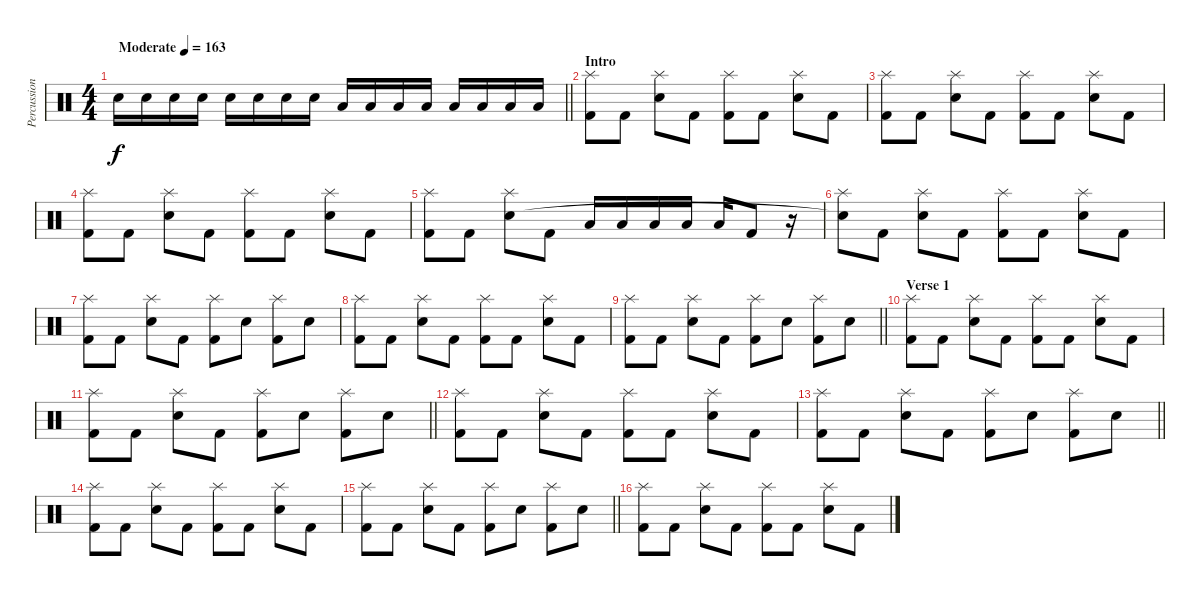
\track ("Percussion" "Percussion") {solo instrument percussion}
\staff {score}
\articulation defaults
\ts (4 4)
\tempo (163 "Moderate")
\clef neutral
\barLineRight lightlight
\ks c "Electric Snare (hit)".16{dy f} "Electric Snare (hit)".16 "Electric Snare (hit)".16 "Electric Snare (hit)".16 "Electric Snare (hit)".16 "Electric Snare (hit)".16 "Electric Snare (hit)".16 "Electric Snare (hit)".16 "Low Tom (hit)".16 "Low Tom (hit)".16 "Low Tom (hit)".16 "Low Tom (hit)".16 "Low Floor Tom (hit)".16 "Low Floor Tom (hit)".16 "Low Floor Tom (hit)".16 "Low Floor Tom (hit)".16
|
\section ("" "Intro")
("Splash (hit)" "Kick (hit) 2").8 "Kick (hit) 2".8 ("Splash (hit)" "Snare (hit) 2").8 "Kick (hit) 2".8 ("Splash (hit)" "Kick (hit) 2").8 "Kick (hit) 2".8 ("Splash (hit)" "Snare (hit) 2").8 "Kick (hit) 2".8 |
("Splash (hit)" "Kick (hit) 2").8 "Kick (hit) 2".8 ("Splash (hit)" "Snare (hit) 2").8 "Kick (hit) 2".8 ("Splash (hit)" "Kick (hit) 2").8 "Kick (hit) 2".8 ("Splash (hit)" "Snare (hit) 2").8 "Kick (hit) 2".8 |
("Splash (hit)" "Kick (hit) 2").8 "Kick (hit) 2".8 ("Splash (hit)" "Snare (hit) 2").8 "Kick (hit) 2".8 ("Splash (hit)" "Kick (hit) 2").8 "Kick (hit) 2".8 ("Splash (hit)" "Snare (hit) 2").8 "Kick (hit) 2".8 |
("Splash (hit)" "Kick (hit) 2").8 "Kick (hit) 2".8 ("Splash (hit)" "Snare (hit) 2").8 "Kick (hit) 2".8 "Low Tom (hit)".16 "Low Tom (hit)".16 "Low Floor Tom (hit)".16 "Low Tom (hit)".16 "Low Tom (hit)".16 "Kick (hit) 2".8 r.16 |
("Splash (hit)" "Snare (hit)"{t}).8 "Kick (hit) 2".8 ("Splash (hit)" "Snare (hit) 2").8 "Kick (hit) 2".8 ("Splash (hit)" "Kick (hit) 2").8 "Kick (hit) 2".8 ("Splash (hit)" "Snare (hit) 2").8 "Kick (hit) 2".8 |
("Splash (hit)" "Kick (hit) 2").8 "Kick (hit) 2".8 ("Splash (hit)" "Snare (hit) 2").8 "Kick (hit) 2".8 ("Splash (hit)" "Kick (hit) 2").8 "Snare (hit) 2".8 ("Splash (hit)" "Kick (hit) 2").8 "Snare (hit) 2".8 |
("Splash (hit)" "Kick (hit) 2").8 "Kick (hit) 2".8 ("Splash (hit)" "Snare (hit) 2").8 "Kick (hit) 2".8 ("Splash (hit)" "Kick (hit) 2").8 "Kick (hit) 2".8 ("Splash (hit)" "Snare (hit) 2").8 "Kick (hit) 2".8 |
\barLineRight lightlight
("Splash (hit)" "Kick (hit) 2").8 "Kick (hit) 2".8 ("Splash (hit)" "Snare (hit) 2").8 "Kick (hit) 2".8 ("Splash (hit)" "Kick (hit) 2").8 "Snare (hit) 2".8 ("Splash (hit)" "Kick (hit) 2").8 "Snare (hit) 2".8 |
\section ("" "Verse 1")
("Splash (hit)" "Kick (hit) 2").8 "Kick (hit) 2".8 ("Splash (hit)" "Snare (hit) 2").8 "Kick (hit) 2".8 ("Splash (hit)" "Kick (hit) 2").8 "Kick (hit) 2".8 ("Splash (hit)" "Snare (hit) 2").8 "Kick (hit) 2".8 |
\barLineRight lightlight
("Splash (hit)" "Kick (hit) 2").8 "Kick (hit) 2".8 ("Splash (hit)" "Snare (hit) 2").8 "Kick (hit) 2".8 ("Splash (hit)" "Kick (hit) 2").8 "Snare (hit) 2".8 ("Splash (hit)" "Kick (hit) 2").8 "Snare (hit) 2".8 |
("Splash (hit)" "Kick (hit) 2").8 "Kick (hit) 2".8 ("Splash (hit)" "Snare (hit) 2").8 "Kick (hit) 2".8 ("Splash (hit)" "Kick (hit) 2").8 "Kick (hit) 2".8 ("Splash (hit)" "Snare (hit) 2").8 "Kick (hit) 2".8 |
\barLineRight lightlight
("Splash (hit)" "Kick (hit) 2").8 "Kick (hit) 2".8 ("Splash (hit)" "Snare (hit) 2").8 "Kick (hit) 2".8 ("Splash (hit)" "Kick (hit) 2").8 "Snare (hit) 2".8 ("Splash (hit)" "Kick (hit) 2").8 "Snare (hit) 2".8 |
("Splash (hit)" "Kick (hit) 2").8 "Kick (hit) 2".8 ("Splash (hit)" "Snare (hit) 2").8 "Kick (hit) 2".8 ("Splash (hit)" "Kick (hit) 2").8 "Kick (hit) 2".8 ("Splash (hit)" "Snare (hit) 2").8 "Kick (hit) 2".8 |
\barLineRight lightlight
("Splash (hit)" "Kick (hit) 2").8 "Kick (hit) 2".8 ("Splash (hit)" "Snare (hit) 2").8 "Kick (hit) 2".8 ("Splash (hit)" "Kick (hit) 2").8 "Snare (hit) 2".8 ("Splash (hit)" "Kick (hit) 2").8 "Snare (hit) 2".8 |
("Splash (hit)" "Kick (hit) 2").8 "Kick (hit) 2".8 ("Splash (hit)" "Snare (hit) 2").8 "Kick (hit) 2".8 ("Splash (hit)" "Kick (hit) 2").8 "Kick (hit) 2".8 ("Splash (hit)" "Snare (hit) 2").8 "Kick (hit) 2".8
